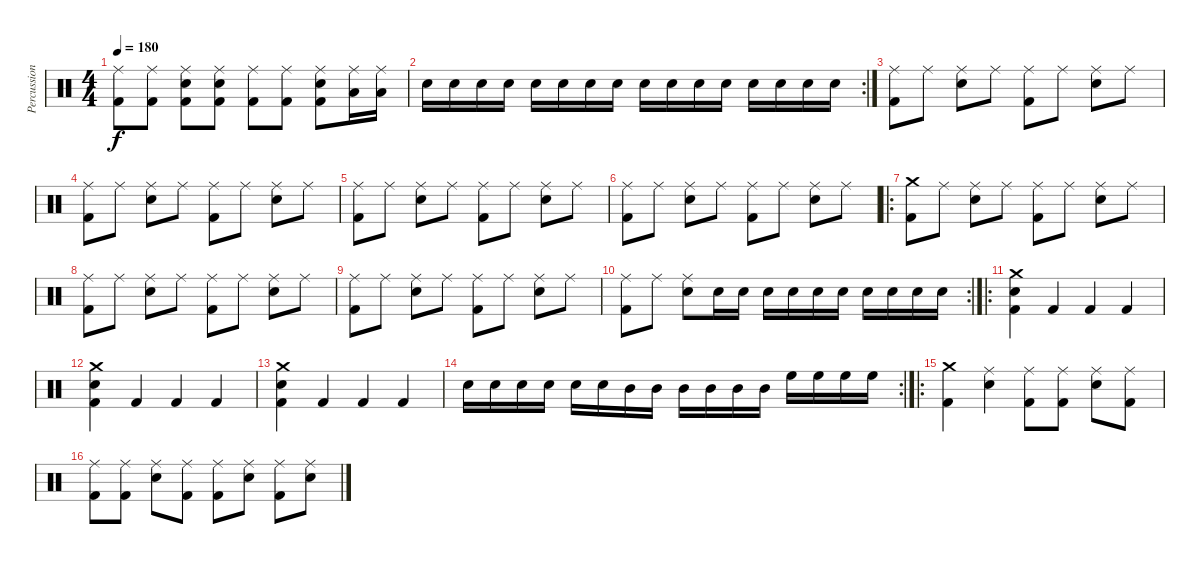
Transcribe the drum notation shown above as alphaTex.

\track ("Percussions" "Percussion") {instrument percussion}
\staff {score}
\articulation defaults
\ts (4 4)
\tempo 180
\clef neutral
\ks c
("Ride (middle)" "Kick (hit) 2").8{dy f} ("Ride (middle)" "Kick (hit) 2").8 ("Ride (middle)" "Electric Snare (hit)" "Kick (hit) 2").8 ("Ride (middle)" "Electric Snare (hit)" "Kick (hit) 2").8 ("Ride (middle)" "Kick (hit) 2").8 ("Ride (middle)" "Kick (hit) 2").8 ("Ride (middle)" "Electric Snare (hit)" "Kick (hit) 2").8 ("Ride (middle)" "Low Floor Tom (hit)").16 ("Ride (middle)" "Low Floor Tom (hit)").16 |
\rc 2 "Electric Snare (hit)".16 "Electric Snare (hit)".16 "Electric Snare (hit)".16 "Electric Snare (hit)".16 "Electric Snare (hit)".16 "Electric Snare (hit)".16 "Electric Snare (hit)".16 "Electric Snare (hit)".16 "Electric Snare (hit)".16 "Electric Snare (hit)".16 "Electric Snare (hit)".16 "Electric Snare (hit)".16 "Electric Snare (hit)".16 "Electric Snare (hit)".16 "Electric Snare (hit)".16 "Electric Snare (hit)".16
|
("Ride (middle)" "Kick (hit) 2").8 "Ride (middle)".8 ("Ride (middle)" "Electric Snare (hit)").8 "Ride (middle)".8 ("Ride (middle)" "Kick (hit) 2").8 "Ride (middle)".8 ("Ride (middle)" "Electric Snare (hit)").8 "Ride (middle)".8 |
("Ride (middle)" "Kick (hit) 2").8 "Ride (middle)".8 ("Ride (middle)" "Electric Snare (hit)").8 "Ride (middle)".8 ("Ride (middle)" "Kick (hit) 2").8 "Ride (middle)".8 ("Ride (middle)" "Electric Snare (hit)").8 "Ride (middle)".8 |
("Ride (middle)" "Kick (hit) 2").8 "Ride (middle)".8 ("Ride (middle)" "Electric Snare (hit)").8 "Ride (middle)".8 ("Ride (middle)" "Kick (hit) 2").8 "Ride (middle)".8 ("Ride (middle)" "Electric Snare (hit)").8 "Ride (middle)".8 |
("Ride (middle)" "Kick (hit) 2").8 "Ride (middle)".8 ("Ride (middle)" "Electric Snare (hit)").8 "Ride (middle)".8 ("Ride (middle)" "Kick (hit) 2").8 "Ride (middle)".8 ("Ride (middle)" "Electric Snare (hit)").8 "Ride (middle)".8 |
\ro
("Crash medium (hit)" "Kick (hit) 2").8 "Ride (middle)".8 ("Ride (middle)" "Electric Snare (hit)").8 "Ride (middle)".8 ("Ride (middle)" "Kick (hit) 2").8 "Ride (middle)".8 ("Ride (middle)" "Electric Snare (hit)").8 "Ride (middle)".8 |
("Ride (middle)" "Kick (hit) 2").8 "Ride (middle)".8 ("Ride (middle)" "Electric Snare (hit)").8 "Ride (middle)".8 ("Ride (middle)" "Kick (hit) 2").8 "Ride (middle)".8 ("Ride (middle)" "Electric Snare (hit)").8 "Ride (middle)".8 |
("Ride (middle)" "Kick (hit) 2").8 "Ride (middle)".8 ("Ride (middle)" "Electric Snare (hit)").8 "Ride (middle)".8 ("Ride (middle)" "Kick (hit) 2").8 "Ride (middle)".8 ("Ride (middle)" "Electric Snare (hit)").8 "Ride (middle)".8 |
\rc 2
("Ride (middle)" "Kick (hit) 2").8 "Ride (middle)".8 ("Ride (middle)" "Electric Snare (hit)").8 "Electric Snare (hit)".16 "Electric Snare (hit)".16 "Electric Snare (hit)".16 "Electric Snare (hit)".16 "Electric Snare (hit)".16 "Electric Snare (hit)".16 "Electric Snare (hit)".16 "Electric Snare (hit)".16 "Electric Snare (hit)".16 "Electric Snare (hit)".16 |
\ro
("Crash medium (hit)" "Electric Snare (hit)" "Kick (hit) 2").4 "Kick (hit) 2".4 "Kick (hit) 2".4 "Kick (hit) 2".4 |
("Crash medium (hit)" "Electric Snare (hit)" "Kick (hit) 2").4 "Kick (hit) 2".4 "Kick (hit) 2".4 "Kick (hit) 2".4 |
("Crash medium (hit)" "Electric Snare (hit)" "Kick (hit) 2").4 "Kick (hit) 2".4 "Kick (hit) 2".4 "Kick (hit) 2".4 |
\rc 2 "Electric Snare (hit)".16 "Electric Snare (hit)".16 "Electric Snare (hit)".16 "Electric Snare (hit)".16 "Electric Snare (hit)".16 "Electric Snare (hit)".16 "Mid Tom (hit)".16 "Mid Tom (hit)".16 "Mid Tom (hit)".16 "Mid Tom (hit)".16 "Mid Tom (hit)".16 "Mid Tom (hit)".16 "High Floor Tom (hit)".16 "High Floor Tom (hit)".16 "High Floor Tom (hit)".16 "High Floor Tom (hit)".16
|
\ro
("Crash medium (hit)" "Kick (hit) 2").4 ("Ride (middle)" "Electric Snare (hit)").4 ("Ride (middle)" "Kick (hit) 2").8 ("Ride (middle)" "Kick (hit) 2").8 ("Ride (middle)" "Electric Snare (hit)").8 ("Ride (middle)" "Kick (hit) 2").8 |
("Ride (middle)" "Kick (hit) 2").8 ("Ride (middle)" "Kick (hit) 2").8 ("Ride (middle)" "Electric Snare (hit)").8 ("Ride (middle)" "Kick (hit) 2").8 ("Ride (middle)" "Kick (hit) 2").8 ("Ride (middle)" "Electric Snare (hit)").8 ("Ride (middle)" "Kick (hit) 2").8 ("Ride (middle)" "Electric Snare (hit)").8
